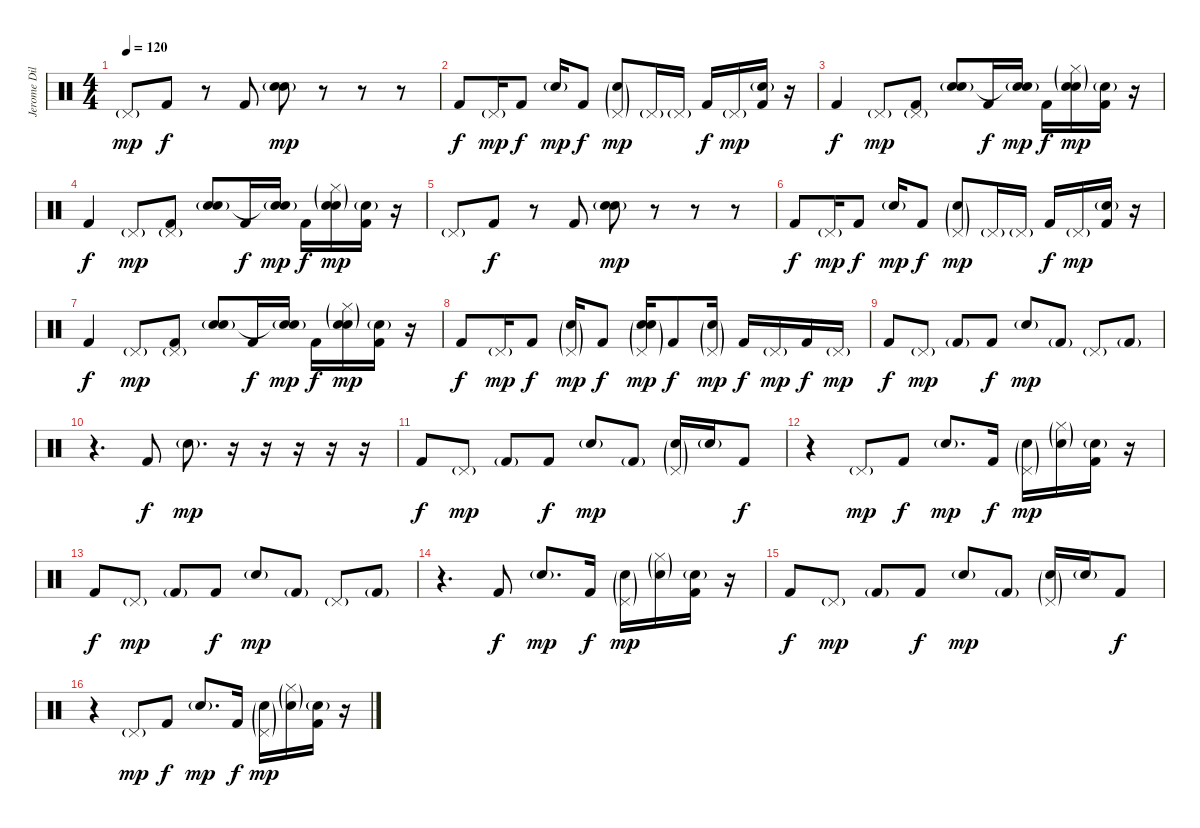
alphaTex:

\track ("Jerome Dillon" "Jerome Dil") {instrument percussion}
\staff {score}
\articulation defaults
\ts (4 4)
\tempo 120
\clef neutral
\ks c "Pedal Hi-Hat (hit)"{g}.8{dy mp} "Kick (hit) 2".8{dy f}
r.8 "Kick (hit) 2".8 ("Electric Snare (hit)"{g} "Electric Snare (hit)"{g}).8{dy mp} r.8 r.8 r.8 |
"Kick (hit) 2".8{dy f} "Pedal Hi-Hat (hit)"{g}.16{dy mp} "Kick (hit) 2".8{dy f} "Electric Snare (hit)"{g}.16{dy mp} "Kick (hit) 2".8{dy f} ("Pedal Hi-Hat (hit)"{g} "Electric Snare (hit)"{g}).8{dy mp} "Pedal Hi-Hat (hit)"{g}.16 "Pedal Hi-Hat (hit)"{g}.16 "Kick (hit) 2".16{dy f} "Pedal Hi-Hat (hit)"{g}.16{dy mp} ("Electric Snare (hit)"{g} "Kick (hit) 2").16 r.16 |
"Kick (hit) 2".4{dy f} "Pedal Hi-Hat (hit)"{g}.8{dy mp} ("Pedal Hi-Hat (hit)"{g} "Kick (hit) 2").8 ("Snare (hit) 2"{g} "Electric Snare (hit)"{g}).8 "Kick (hit) 2".16{dy f} ("Snare (hit) 2"{g} "Snare (hit)"{t}).16{dy mp} "Kick (hit) 2".16{dy f} ("Hi-Hat (closed)"{g} "Electric Snare (hit)"{g} "Snare (hit) 2"{g}).16{dy mp} ("Electric Snare (hit)"{g} "Kick (hit) 2").16 r.16 |
"Kick (hit) 2".4{dy f} "Pedal Hi-Hat (hit)"{g}.8{dy mp} ("Pedal Hi-Hat (hit)"{g} "Kick (hit) 2").8 ("Snare (hit) 2"{g} "Electric Snare (hit)"{g}).8 "Kick (hit) 2".16{dy f} ("Snare (hit) 2"{g} "Snare (hit)"{t}).16{dy mp} "Kick (hit) 2".16{dy f} ("Hi-Hat (closed)"{g} "Electric Snare (hit)"{g} "Snare (hit) 2"{g}).16{dy mp} ("Electric Snare (hit)"{g} "Kick (hit) 2").16 r.16 |
"Pedal Hi-Hat (hit)"{g}.8 "Kick (hit) 2".8{dy f} r.8 "Kick (hit) 2".8 ("Electric Snare (hit)"{g} "Electric Snare (hit)"{g}).8{dy mp} r.8 r.8 r.8 |
"Kick (hit) 2".8{dy f} "Pedal Hi-Hat (hit)"{g}.16{dy mp} "Kick (hit) 2".8{dy f} "Electric Snare (hit)"{g}.16{dy mp} "Kick (hit) 2".8{dy f} ("Pedal Hi-Hat (hit)"{g} "Electric Snare (hit)"{g}).8{dy mp} "Pedal Hi-Hat (hit)"{g}.16 "Pedal Hi-Hat (hit)"{g}.16 "Kick (hit) 2".16{dy f} "Pedal Hi-Hat (hit)"{g}.16{dy mp} ("Electric Snare (hit)"{g} "Kick (hit) 2").16 r.16 |
"Kick (hit) 2".4{dy f} "Pedal Hi-Hat (hit)"{g}.8{dy mp} ("Pedal Hi-Hat (hit)"{g} "Kick (hit) 2").8 ("Snare (hit) 2"{g} "Electric Snare (hit)"{g}).8 "Kick (hit) 2".16{dy f} ("Snare (hit) 2"{g} "Snare (hit)"{t}).16{dy mp} "Kick (hit) 2".16{dy f} ("Hi-Hat (closed)"{g} "Electric Snare (hit)"{g} "Snare (hit) 2"{g}).16{dy mp} ("Electric Snare (hit)"{g} "Kick (hit) 2").16 r.16 |
"Kick (hit) 2".8{dy f} "Pedal Hi-Hat (hit)"{g}.16{dy mp} "Kick (hit) 2".8{dy f} ("Electric Snare (hit)"{g} "Pedal Hi-Hat (hit)"{g}).16{dy mp} "Kick (hit) 2".8{dy f} ("Electric Snare (hit)"{g} "Snare (hit) 2"{g} "Pedal Hi-Hat (hit)"{g}).16{dy mp} "Kick (hit) 2".8{dy f} ("Snare (hit) 2"{g} "Pedal Hi-Hat (hit)"{g}).16{dy mp} "Kick (hit) 2".16{dy f} "Pedal Hi-Hat (hit)"{g}.16{dy mp} "Kick (hit) 2".16{dy f} "Pedal Hi-Hat (hit)"{g}.16{dy mp} |
"Kick (hit) 2".8{dy f} "Pedal Hi-Hat (hit)"{g}.8{dy mp} "Kick (hit) 2"{g}.8 "Kick (hit) 2".8{dy f} "Electric Snare (hit)"{g}.8{dy mp} "Kick (hit) 2"{g}.8 "Pedal Hi-Hat (hit)"{g}.8 "Kick (hit) 2"{g}.8 |
r.4{d} "Kick (hit) 2".8{dy f} "Electric Snare (hit)"{g}.8{d dy mp} r.16 r.16 r.16 r.16 r.16 |
"Kick (hit) 2".8{dy f} "Pedal Hi-Hat (hit)"{g}.8{dy mp} "Kick (hit) 2"{g}.8 "Kick (hit) 2".8{dy f} "Electric Snare (hit)"{g}.8{dy mp} "Kick (hit) 2"{g}.8 ("Pedal Hi-Hat (hit)"{g} "Electric Snare (hit)"{g}).16 "Electric Snare (hit)"{g}.16 "Kick (hit) 2".8{dy f} |
r.4 "Pedal Hi-Hat (hit)"{g}.8{dy mp} "Kick (hit) 2".8{dy f} "Electric Snare (hit)"{g}.8{d dy mp} "Kick (hit) 2".16{dy f} ("Pedal Hi-Hat (hit)"{g} "Electric Snare (hit)"{g}).16{dy mp} ("Hi-Hat (closed)"{g} "Electric Snare (hit)"{g}).16 ("Electric Snare (hit)"{g} "Kick (hit) 2").16 r.16 |
"Kick (hit) 2".8{dy f} "Pedal Hi-Hat (hit)"{g}.8{dy mp} "Kick (hit) 2"{g}.8 "Kick (hit) 2".8{dy f} "Electric Snare (hit)"{g}.8{dy mp} "Kick (hit) 2"{g}.8 "Pedal Hi-Hat (hit)"{g}.8 "Kick (hit) 2"{g}.8 |
r.4{d} "Kick (hit) 2".8{dy f} "Electric Snare (hit)"{g}.8{d dy mp} "Kick (hit) 2".16{dy f} ("Pedal Hi-Hat (hit)"{g} "Electric Snare (hit)"{g}).16{dy mp} ("Hi-Hat (closed)"{g} "Electric Snare (hit)"{g}).16 ("Electric Snare (hit)"{g} "Kick (hit) 2").16 r.16 |
"Kick (hit) 2".8{dy f} "Pedal Hi-Hat (hit)"{g}.8{dy mp} "Kick (hit) 2"{g}.8 "Kick (hit) 2".8{dy f} "Electric Snare (hit)"{g}.8{dy mp} "Kick (hit) 2"{g}.8 ("Pedal Hi-Hat (hit)"{g} "Electric Snare (hit)"{g}).16 "Electric Snare (hit)"{g}.16 "Kick (hit) 2".8{dy f} |
r.4 "Pedal Hi-Hat (hit)"{g}.8{dy mp} "Kick (hit) 2".8{dy f} "Electric Snare (hit)"{g}.8{d dy mp} "Kick (hit) 2".16{dy f} ("Pedal Hi-Hat (hit)"{g} "Electric Snare (hit)"{g}).16{dy mp} ("Hi-Hat (closed)"{g} "Electric Snare (hit)"{g}).16 ("Electric Snare (hit)"{g} "Kick (hit) 2").16 r.16
